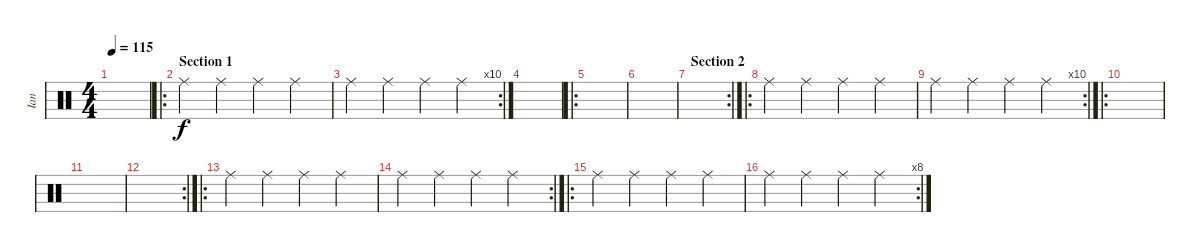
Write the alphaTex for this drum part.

\track ("Ian" "Ian") {instrument percussion}
\staff {score}
\articulation defaults
\ts (4 4)
\tempo 115
\clef neutral
\ks c
|
\ro
\section ("" "Section 1")
"Ride (middle)".4 "Ride (middle)".4 "Ride (middle)".4 "Ride (middle)".4 |
\rc 10 "Ride (middle)".4 "Ride (middle)".4 "Ride (middle)".4 "Ride (middle)".4
|
|
\ro
|
|
\rc 2
\section ("" "Section 2")
|
\ro "Ride (middle)".4 "Ride (middle)".4 "Ride (middle)".4 "Ride (middle)".4
|
\rc 10 "Ride (middle)".4 "Ride (middle)".4 "Ride (middle)".4 "Ride (middle)".4
|
\ro
|
|
\rc 2
|
\ro "Ride (middle)".4 "Ride (middle)".4 "Ride (middle)".4 "Ride (middle)".4
|
\rc 2 "Ride (middle)".4 "Ride (middle)".4 "Ride (middle)".4 "Ride (middle)".4
|
\ro "Ride (middle)".4 "Ride (middle)".4 "Ride (middle)".4 "Ride (middle)".4
|
\rc 8 "Ride (middle)".4 "Ride (middle)".4 "Ride (middle)".4 "Ride (middle)".4
